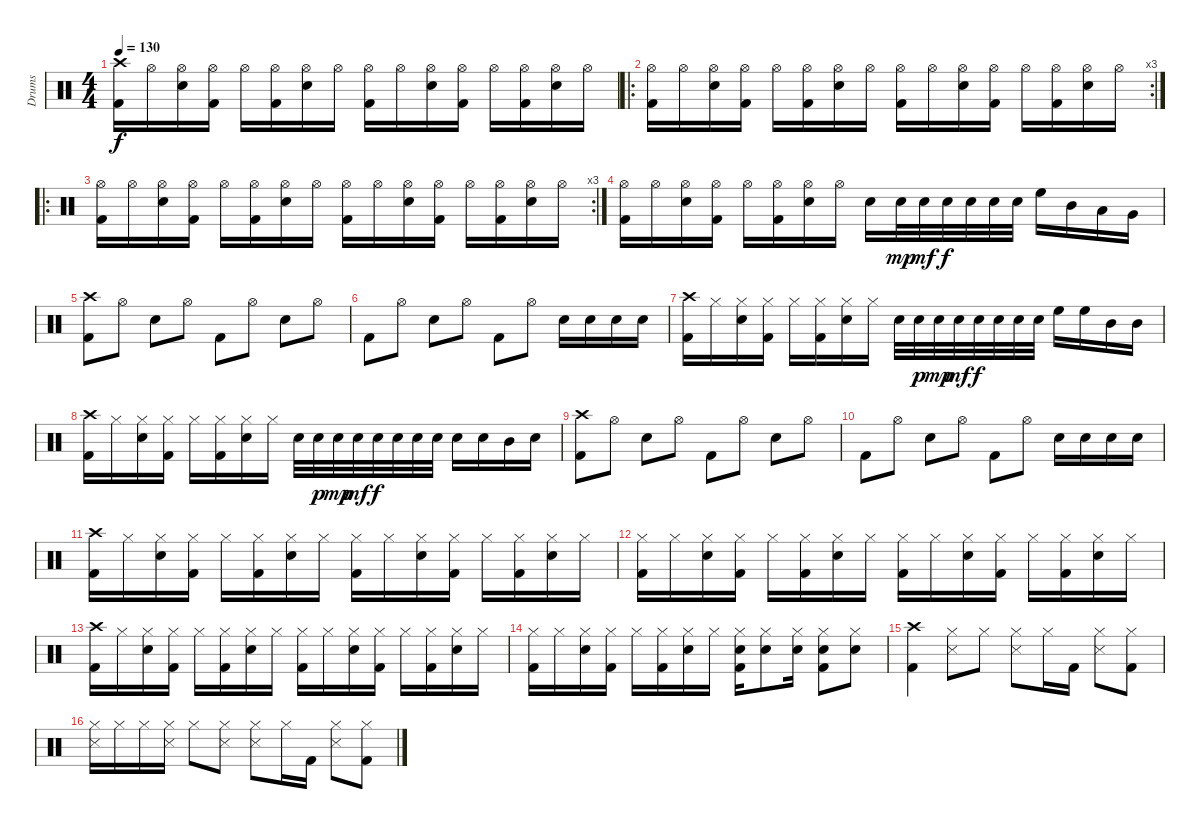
\track ("Drums" "Drums") {instrument percussion}
\staff {score}
\articulation defaults
\ts (4 4)
\tempo 130
\clef neutral
\ks c
("Crash high (hit)" "Kick (hit) 2").16{dy f} "Hi-Hat (open)".16 ("Hi-Hat (open)" "Electric Snare (hit)").16 ("Hi-Hat (open)" "Kick (hit) 2").16 "Hi-Hat (open)".16 ("Hi-Hat (open)" "Kick (hit) 2").16 ("Hi-Hat (open)" "Electric Snare (hit)").16 "Hi-Hat (open)".16 ("Hi-Hat (open)" "Kick (hit) 2").16 "Hi-Hat (open)".16 ("Hi-Hat (open)" "Electric Snare (hit)").16 ("Hi-Hat (open)" "Kick (hit) 2").16 "Hi-Hat (open)".16 ("Hi-Hat (open)" "Kick (hit) 2").16 ("Hi-Hat (open)" "Electric Snare (hit)").16 "Hi-Hat (open)".16 |
\ro
\rc 3
("Hi-Hat (open)" "Kick (hit) 2").16 "Hi-Hat (open)".16 ("Hi-Hat (open)" "Electric Snare (hit)").16 ("Hi-Hat (open)" "Kick (hit) 2").16 "Hi-Hat (open)".16 ("Hi-Hat (open)" "Kick (hit) 2").16 ("Hi-Hat (open)" "Electric Snare (hit)").16 "Hi-Hat (open)".16 ("Hi-Hat (open)" "Kick (hit) 2").16 "Hi-Hat (open)".16 ("Hi-Hat (open)" "Electric Snare (hit)").16 ("Hi-Hat (open)" "Kick (hit) 2").16 "Hi-Hat (open)".16 ("Hi-Hat (open)" "Kick (hit) 2").16 ("Hi-Hat (open)" "Electric Snare (hit)").16 "Hi-Hat (open)".16 |
\ro
\rc 3
("Hi-Hat (open)" "Kick (hit) 2").16 "Hi-Hat (open)".16 ("Hi-Hat (open)" "Electric Snare (hit)").16 ("Hi-Hat (open)" "Kick (hit) 2").16 "Hi-Hat (open)".16 ("Hi-Hat (open)" "Kick (hit) 2").16 ("Hi-Hat (open)" "Electric Snare (hit)").16 "Hi-Hat (open)".16 ("Hi-Hat (open)" "Kick (hit) 2").16 "Hi-Hat (open)".16 ("Hi-Hat (open)" "Electric Snare (hit)").16 ("Hi-Hat (open)" "Kick (hit) 2").16 "Hi-Hat (open)".16 ("Hi-Hat (open)" "Kick (hit) 2").16 ("Hi-Hat (open)" "Electric Snare (hit)").16 "Hi-Hat (open)".16 |
("Hi-Hat (open)" "Kick (hit) 2").16 "Hi-Hat (open)".16 ("Hi-Hat (open)" "Electric Snare (hit)").16 ("Hi-Hat (open)" "Kick (hit) 2").16 "Hi-Hat (open)".16 ("Hi-Hat (open)" "Kick (hit) 2").16 ("Hi-Hat (open)" "Electric Snare (hit)").16 "Hi-Hat (open)".16 "Electric Snare (hit)".16 "Electric Snare (hit)".32{dy mp} "Electric Snare (hit)".32{dy mf} "Electric Snare (hit)".32{dy f} "Electric Snare (hit)".32 "Electric Snare (hit)".32 "Electric Snare (hit)".32 "High Floor Tom (hit)".16 "Mid Tom (hit)".16 "Low Tom (hit)".16 "Very Low Tom (hit)".16 |
("Crash high (hit)" "Kick (hit) 2").8 "Hi-Hat (open)".8 "Electric Snare (hit)".8 "Hi-Hat (open)".8 "Kick (hit) 2".8 "Hi-Hat (open)".8 "Electric Snare (hit)".8 "Hi-Hat (open)".8 |
"Kick (hit) 2".8 "Hi-Hat (open)".8 "Electric Snare (hit)".8 "Hi-Hat (open)".8 "Kick (hit) 2".8 "Hi-Hat (open)".8 "Electric Snare (hit)".16 "Electric Snare (hit)".16 "Electric Snare (hit)".16 "Electric Snare (hit)".16 |
("Crash high (hit)" "Kick (hit) 2").16 "Hi-Hat (closed)".16 ("Hi-Hat (closed)" "Electric Snare (hit)").16 ("Hi-Hat (closed)" "Kick (hit) 2").16 "Hi-Hat (closed)".16 ("Hi-Hat (closed)" "Kick (hit) 2").16 ("Hi-Hat (closed)" "Electric Snare (hit)").16 "Hi-Hat (closed)".16 "Electric Snare (hit)".32 "Electric Snare (hit)".32{dy p} "Electric Snare (hit)".32{dy mp} "Electric Snare (hit)".32{dy mf} "Electric Snare (hit)".32{dy f} "Electric Snare (hit)".32 "Electric Snare (hit)".32 "Electric Snare (hit)".32 "High Floor Tom (hit)".16 "High Floor Tom (hit)".16 "Mid Tom (hit)".16 "Mid Tom (hit)".16 |
("Crash high (hit)" "Kick (hit) 2").16 "Hi-Hat (closed)".16 ("Hi-Hat (closed)" "Electric Snare (hit)").16 ("Hi-Hat (closed)" "Kick (hit) 2").16 "Hi-Hat (closed)".16 ("Hi-Hat (closed)" "Kick (hit) 2").16 ("Hi-Hat (closed)" "Electric Snare (hit)").16 "Hi-Hat (closed)".16 "Electric Snare (hit)".32 "Electric Snare (hit)".32{dy p} "Electric Snare (hit)".32{dy mp} "Electric Snare (hit)".32{dy mf} "Electric Snare (hit)".32{dy f} "Electric Snare (hit)".32 "Electric Snare (hit)".32 "Electric Snare (hit)".32 "Electric Snare (hit)".16 "Electric Snare (hit)".16 "Mid Tom (hit)".16 "Electric Snare (hit)".16 |
("Crash high (hit)" "Kick (hit) 2").8 "Hi-Hat (open)".8 "Electric Snare (hit)".8 "Hi-Hat (open)".8 "Kick (hit) 2".8 "Hi-Hat (open)".8 "Electric Snare (hit)".8 "Hi-Hat (open)".8 |
"Kick (hit) 2".8 "Hi-Hat (open)".8 "Electric Snare (hit)".8 "Hi-Hat (open)".8 "Kick (hit) 2".8 "Hi-Hat (open)".8 "Electric Snare (hit)".16 "Electric Snare (hit)".16 "Electric Snare (hit)".16 "Electric Snare (hit)".16 |
("Crash high (hit)" "Kick (hit) 2").16 "Hi-Hat (closed)".16 ("Hi-Hat (closed)" "Electric Snare (hit)").16 ("Hi-Hat (closed)" "Kick (hit) 2").16 "Hi-Hat (closed)".16 ("Hi-Hat (closed)" "Kick (hit) 2").16 ("Hi-Hat (closed)" "Electric Snare (hit)").16 "Hi-Hat (closed)".16 ("Hi-Hat (closed)" "Kick (hit) 2").16 "Hi-Hat (closed)".16 ("Hi-Hat (closed)" "Electric Snare (hit)").16 ("Hi-Hat (closed)" "Kick (hit) 2").16 "Hi-Hat (closed)".16 ("Hi-Hat (closed)" "Kick (hit) 2").16 ("Hi-Hat (closed)" "Electric Snare (hit)").16 "Hi-Hat (closed)".16 |
("Hi-Hat (closed)" "Kick (hit) 2").16 "Hi-Hat (closed)".16 ("Hi-Hat (closed)" "Electric Snare (hit)").16 ("Hi-Hat (closed)" "Kick (hit) 2").16 "Hi-Hat (closed)".16 ("Hi-Hat (closed)" "Kick (hit) 2").16 ("Hi-Hat (closed)" "Electric Snare (hit)").16 "Hi-Hat (closed)".16 ("Hi-Hat (closed)" "Kick (hit) 2").16 "Hi-Hat (closed)".16 ("Hi-Hat (closed)" "Electric Snare (hit)").16 ("Hi-Hat (closed)" "Kick (hit) 2").16 "Hi-Hat (closed)".16 ("Hi-Hat (closed)" "Kick (hit) 2").16 ("Hi-Hat (closed)" "Electric Snare (hit)").16 "Hi-Hat (closed)".16 |
("Crash high (hit)" "Kick (hit) 2").16 "Hi-Hat (closed)".16 ("Hi-Hat (closed)" "Electric Snare (hit)").16 ("Hi-Hat (closed)" "Kick (hit) 2").16 "Hi-Hat (closed)".16 ("Hi-Hat (closed)" "Kick (hit) 2").16 ("Hi-Hat (closed)" "Electric Snare (hit)").16 "Hi-Hat (closed)".16 ("Hi-Hat (closed)" "Kick (hit) 2").16 "Hi-Hat (closed)".16 ("Hi-Hat (closed)" "Electric Snare (hit)").16 ("Hi-Hat (closed)" "Kick (hit) 2").16 "Hi-Hat (closed)".16 ("Hi-Hat (closed)" "Kick (hit) 2").16 ("Hi-Hat (closed)" "Electric Snare (hit)").16 "Hi-Hat (closed)".16 |
("Hi-Hat (closed)" "Kick (hit) 2").16 "Hi-Hat (closed)".16 ("Hi-Hat (closed)" "Electric Snare (hit)").16 ("Hi-Hat (closed)" "Kick (hit) 2").16 "Hi-Hat (closed)".16 ("Hi-Hat (closed)" "Kick (hit) 2").16 ("Hi-Hat (closed)" "Electric Snare (hit)").16 "Hi-Hat (closed)".16 ("Hi-Hat (closed)" "Electric Snare (hit)" "Kick (hit) 2").16 ("Hi-Hat (closed)" "Electric Snare (hit)").8 ("Hi-Hat (closed)" "Electric Snare (hit)").16 ("Hi-Hat (closed)" "Electric Snare (hit)" "Kick (hit) 2").8 ("Hi-Hat (closed)" "Electric Snare (hit)").8 |
("Crash high (hit)" "Kick (hit) 2").4 ("Hi-Hat (closed)" "Snare (side stick) 3").8 "Hi-Hat (closed)".8 ("Hi-Hat (closed)" "Snare (side stick) 3").8 "Hi-Hat (closed)".16 "Kick (hit) 2".16 ("Hi-Hat (closed)" "Snare (side stick) 3").8 ("Hi-Hat (closed)" "Kick (hit) 2").8 |
("Hi-Hat (closed)" "Snare (side stick) 3").16 "Hi-Hat (closed)".16 "Hi-Hat (closed)".16 ("Hi-Hat (closed)" "Snare (side stick) 3").16 "Hi-Hat (closed)".8 ("Hi-Hat (closed)" "Snare (side stick) 3").8 ("Hi-Hat (closed)" "Snare (side stick) 3").8 "Hi-Hat (closed)".16 "Kick (hit) 2".16 ("Hi-Hat (closed)" "Snare (side stick) 3").8 ("Hi-Hat (closed)" "Kick (hit) 2").8
